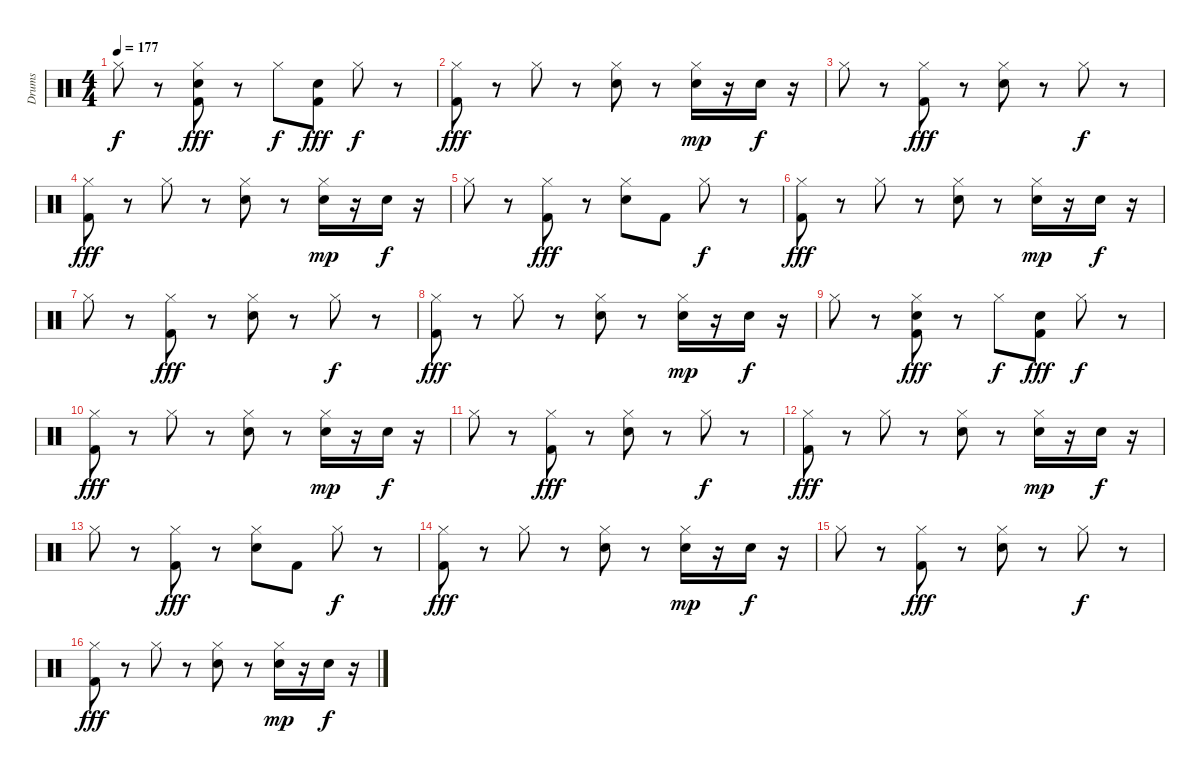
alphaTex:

\track ("Drums" "Drums") {instrument percussion}
\staff {score}
\articulation defaults
\ts (4 4)
\tempo 177
\clef neutral
\ks c "Hi-Hat (closed)".8{dy f}
r.8 ("Hi-Hat (closed)" "Snare (hit) 2" "Kick (hit) 2").8{dy fff} r.8 "Hi-Hat (closed)".8{dy f} ("Snare (hit) 2" "Kick (hit) 2").8{dy fff} "Hi-Hat (closed)".8{dy f} r.8 |
("Hi-Hat (closed)" "Kick (hit) 2").8{dy fff} r.8 "Hi-Hat (closed)".8 r.8 ("Hi-Hat (closed)" "Snare (hit) 2").8 r.8 ("Hi-Hat (closed)" "Snare (hit) 2").16{dy mp} r.16 "Snare (hit) 2".16{dy f} r.16 |
"Hi-Hat (closed)".8 r.8 ("Hi-Hat (closed)" "Kick (hit) 2").8{dy fff} r.8 ("Hi-Hat (closed)" "Snare (hit) 2").8 r.8 "Hi-Hat (closed)".8{dy f} r.8 |
("Hi-Hat (closed)" "Kick (hit) 2").8{dy fff} r.8 "Hi-Hat (closed)".8 r.8 ("Hi-Hat (closed)" "Snare (hit) 2").8 r.8 ("Hi-Hat (closed)" "Snare (hit) 2").16{dy mp} r.16 "Snare (hit) 2".16{dy f} r.16 |
"Hi-Hat (closed)".8 r.8 ("Hi-Hat (closed)" "Kick (hit) 2").8{dy fff} r.8 ("Hi-Hat (closed)" "Snare (hit) 2").8 "Kick (hit) 2".8 "Hi-Hat (closed)".8{dy f} r.8 |
("Hi-Hat (closed)" "Kick (hit) 2").8{dy fff} r.8 "Hi-Hat (closed)".8 r.8 ("Hi-Hat (closed)" "Snare (hit) 2").8 r.8 ("Hi-Hat (closed)" "Snare (hit) 2").16{dy mp} r.16 "Snare (hit) 2".16{dy f} r.16 |
"Hi-Hat (closed)".8 r.8 ("Hi-Hat (closed)" "Kick (hit) 2").8{dy fff} r.8 ("Hi-Hat (closed)" "Snare (hit) 2").8 r.8 "Hi-Hat (closed)".8{dy f} r.8 |
("Hi-Hat (closed)" "Kick (hit) 2").8{dy fff} r.8 "Hi-Hat (closed)".8 r.8 ("Hi-Hat (closed)" "Snare (hit) 2").8 r.8 ("Hi-Hat (closed)" "Snare (hit) 2").16{dy mp} r.16 "Snare (hit) 2".16{dy f} r.16 |
"Hi-Hat (closed)".8 r.8 ("Hi-Hat (closed)" "Snare (hit) 2" "Kick (hit) 2").8{dy fff} r.8 "Hi-Hat (closed)".8{dy f} ("Snare (hit) 2" "Kick (hit) 2").8{dy fff} "Hi-Hat (closed)".8{dy f} r.8 |
("Hi-Hat (closed)" "Kick (hit) 2").8{dy fff} r.8 "Hi-Hat (closed)".8 r.8 ("Hi-Hat (closed)" "Snare (hit) 2").8 r.8 ("Hi-Hat (closed)" "Snare (hit) 2").16{dy mp} r.16 "Snare (hit) 2".16{dy f} r.16 |
"Hi-Hat (closed)".8 r.8 ("Hi-Hat (closed)" "Kick (hit) 2").8{dy fff} r.8 ("Hi-Hat (closed)" "Snare (hit) 2").8 r.8 "Hi-Hat (closed)".8{dy f} r.8 |
("Hi-Hat (closed)" "Kick (hit) 2").8{dy fff} r.8 "Hi-Hat (closed)".8 r.8 ("Hi-Hat (closed)" "Snare (hit) 2").8 r.8 ("Hi-Hat (closed)" "Snare (hit) 2").16{dy mp} r.16 "Snare (hit) 2".16{dy f} r.16 |
"Hi-Hat (closed)".8 r.8 ("Hi-Hat (closed)" "Kick (hit) 2").8{dy fff} r.8 ("Hi-Hat (closed)" "Snare (hit) 2").8 "Kick (hit) 2".8 "Hi-Hat (closed)".8{dy f} r.8 |
("Hi-Hat (closed)" "Kick (hit) 2").8{dy fff} r.8 "Hi-Hat (closed)".8 r.8 ("Hi-Hat (closed)" "Snare (hit) 2").8 r.8 ("Hi-Hat (closed)" "Snare (hit) 2").16{dy mp} r.16 "Snare (hit) 2".16{dy f} r.16 |
"Hi-Hat (closed)".8 r.8 ("Hi-Hat (closed)" "Kick (hit) 2").8{dy fff} r.8 ("Hi-Hat (closed)" "Snare (hit) 2").8 r.8 "Hi-Hat (closed)".8{dy f} r.8 |
("Hi-Hat (closed)" "Kick (hit) 2").8{dy fff} r.8 "Hi-Hat (closed)".8 r.8 ("Hi-Hat (closed)" "Snare (hit) 2").8 r.8 ("Hi-Hat (closed)" "Snare (hit) 2").16{dy mp} r.16 "Snare (hit) 2".16{dy f} r.16
